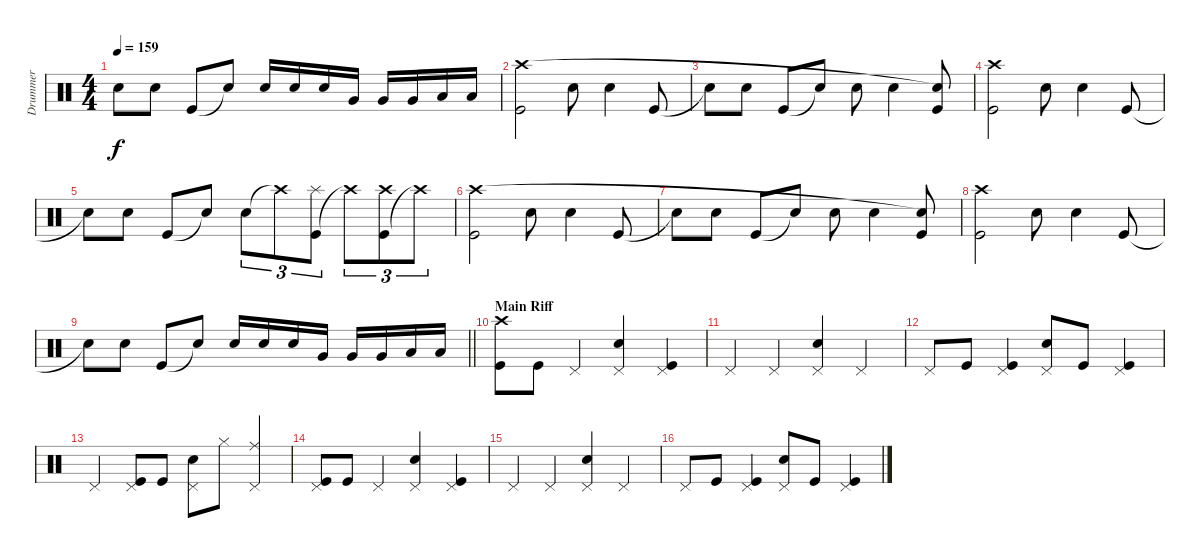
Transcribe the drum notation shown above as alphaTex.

\track ("Drummer" "Drummer") {instrument percussion}
\staff {score}
\articulation defaults
\ts (4 4)
\tempo 159
\clef neutral
\ks c "Snare (hit)"{t}.8{dy f} "Snare (hit) 2".8 "Kick (hit)".8 "Snare (hit)"{t}.8 "Snare (hit) 2".16 "Snare (hit) 2".16 "Snare (hit) 2".16 "Very Low Tom (hit)".16 "Very Low Tom (hit)".16 "Very Low Tom (hit)".16 "Low Tom (hit)".16 "Low Tom (hit)".16
|
("Kick (hit)" "Crash high (hit)").2 "Snare (hit) 2".8 "Snare (hit) 2".4 "Kick (hit)".8 |
"Snare (hit)"{t}.8 "Snare (hit) 2".8 "Kick (hit)".8 "Snare (hit)"{t}.8 "Snare (hit) 2".8 "Snare (hit) 2".4 ("Kick (hit)" "Snare (hit)"{t}).8 |
("Kick (hit)" "Crash high (hit)").2 "Snare (hit) 2".8 "Snare (hit) 2".4 "Kick (hit)".8 |
"Snare (hit)"{t}.8 "Snare (hit) 2".8 "Kick (hit)".8 "Snare (hit)"{t}.8 "Snare (hit) 2".8{tu (3 2)} "Crash high (hit)"{t}.8{tu (3 2)} ("Kick (hit)" "Splash (hit)").8{tu (3 2)} "Crash high (hit)"{t}.8{tu (3 2)} ("Kick (hit)" "Crash high (hit)").8{tu (3 2)} "Crash high (hit)"{t}.8{tu (3 2)} |
("Kick (hit)" "Crash high (hit)").2 "Snare (hit) 2".8 "Snare (hit) 2".4 "Kick (hit)".8 |
"Snare (hit)"{t}.8 "Snare (hit) 2".8 "Kick (hit)".8 "Snare (hit)"{t}.8 "Snare (hit) 2".8 "Snare (hit) 2".4 ("Kick (hit)" "Snare (hit)"{t}).8 |
("Kick (hit)" "Crash high (hit)").2 "Snare (hit) 2".8 "Snare (hit) 2".4 "Kick (hit)".8 |
\barLineRight lightlight "Snare (hit)"{t}.8 "Snare (hit) 2".8 "Kick (hit)".8 "Snare (hit)"{t}.8 "Snare (hit) 2".16 "Snare (hit) 2".16 "Snare (hit) 2".16 "Very Low Tom (hit)".16 "Very Low Tom (hit)".16 "Very Low Tom (hit)".16 "Low Tom (hit)".16 "Low Tom (hit)".16
|
\section ("" "Main Riff")
("Kick (hit)" "Crash high (hit)").8 "Kick (hit)".8 "Pedal Hi-Hat (hit)".4 ("Snare (hit) 2" "Pedal Hi-Hat (hit)").4 ("Kick (hit)" "Pedal Hi-Hat (hit)").4 |
"Pedal Hi-Hat (hit)".4 "Pedal Hi-Hat (hit)".4 ("Snare (hit) 2" "Pedal Hi-Hat (hit)").4 "Pedal Hi-Hat (hit)".4 |
"Pedal Hi-Hat (hit)".8 "Kick (hit)".8 ("Kick (hit)" "Pedal Hi-Hat (hit)").4 ("Snare (hit) 2" "Pedal Hi-Hat (hit)").8 "Kick (hit)".8 ("Kick (hit)" "Pedal Hi-Hat (hit)").4 |
"Pedal Hi-Hat (hit)".4 ("Kick (hit)" "Pedal Hi-Hat (hit)").8 "Kick (hit)".8 ("Snare (hit) 2" "Pedal Hi-Hat (hit)").8 "Hi-Hat (closed)".8 ("Ride (middle)" "Pedal Hi-Hat (hit)").4 |
("Kick (hit)" "Pedal Hi-Hat (hit)").8 "Kick (hit)".8 "Pedal Hi-Hat (hit)".4 ("Snare (hit) 2" "Pedal Hi-Hat (hit)").4 ("Kick (hit)" "Pedal Hi-Hat (hit)").4 |
"Pedal Hi-Hat (hit)".4 "Pedal Hi-Hat (hit)".4 ("Snare (hit) 2" "Pedal Hi-Hat (hit)").4 "Pedal Hi-Hat (hit)".4 |
"Pedal Hi-Hat (hit)".8 "Kick (hit)".8 ("Kick (hit)" "Pedal Hi-Hat (hit)").4 ("Snare (hit) 2" "Pedal Hi-Hat (hit)").8 "Kick (hit)".8 ("Kick (hit)" "Pedal Hi-Hat (hit)").4
